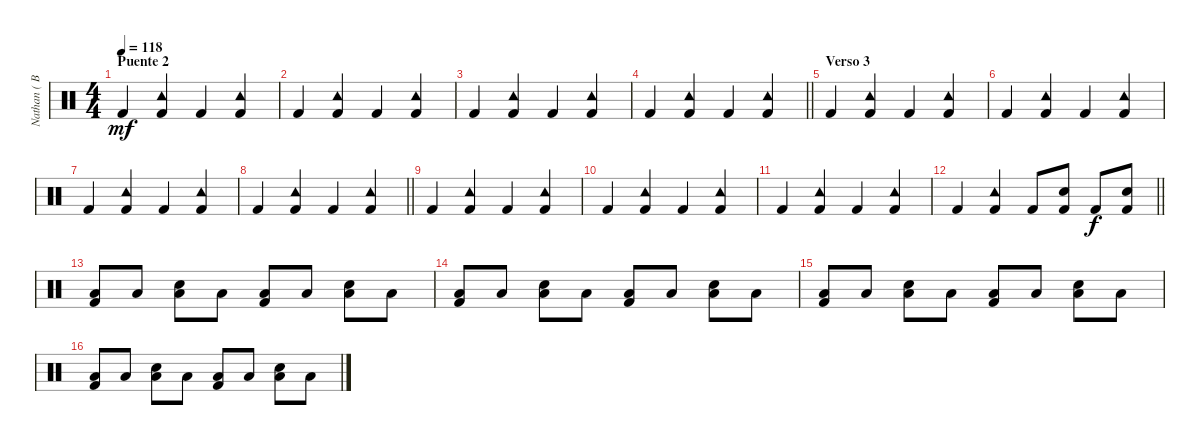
\track ("Nathan ( Bateria )" "Nathan ( B") {instrument percussion}
\staff {score}
\articulation defaults
\ts (4 4)
\section ("" "Puente 2")
\tempo 118
\clef neutral
\ks c "Kick (hit) 2".4{dy mf}
("Tambourine (hit)" "Kick (hit) 2").4 "Kick (hit) 2".4 ("Tambourine (hit)" "Kick (hit) 2").4 |
"Kick (hit) 2".4 ("Tambourine (hit)" "Kick (hit) 2").4 "Kick (hit) 2".4 ("Tambourine (hit)" "Kick (hit) 2").4 |
"Kick (hit) 2".4 ("Tambourine (hit)" "Kick (hit) 2").4 "Kick (hit) 2".4 ("Tambourine (hit)" "Kick (hit) 2").4 |
\barLineRight lightlight "Kick (hit) 2".4
("Tambourine (hit)" "Kick (hit) 2").4 "Kick (hit) 2".4 ("Tambourine (hit)" "Kick (hit) 2").4 |
\section ("" "Verso 3")
"Kick (hit) 2".4 ("Tambourine (hit)" "Kick (hit) 2").4 "Kick (hit) 2".4 ("Tambourine (hit)" "Kick (hit) 2").4 |
"Kick (hit) 2".4 ("Tambourine (hit)" "Kick (hit) 2").4 "Kick (hit) 2".4 ("Tambourine (hit)" "Kick (hit) 2").4 |
"Kick (hit) 2".4 ("Tambourine (hit)" "Kick (hit) 2").4 "Kick (hit) 2".4 ("Tambourine (hit)" "Kick (hit) 2").4 |
\barLineRight lightlight "Kick (hit) 2".4
("Tambourine (hit)" "Kick (hit) 2").4 "Kick (hit) 2".4 ("Tambourine (hit)" "Kick (hit) 2").4 |
"Kick (hit) 2".4 ("Tambourine (hit)" "Kick (hit) 2").4 "Kick (hit) 2".4 ("Tambourine (hit)" "Kick (hit) 2").4 |
"Kick (hit) 2".4 ("Tambourine (hit)" "Kick (hit) 2").4 "Kick (hit) 2".4 ("Tambourine (hit)" "Kick (hit) 2").4 |
"Kick (hit) 2".4 ("Tambourine (hit)" "Kick (hit) 2").4 "Kick (hit) 2".4 ("Tambourine (hit)" "Kick (hit) 2").4 |
\barLineRight lightlight "Kick (hit) 2".4
("Tambourine (hit)" "Kick (hit) 2").4 "Kick (hit) 2".8 ("Electric Snare (hit)" "Kick (hit) 2").8 "Kick (hit) 2".8{dy f} ("Electric Snare (hit)" "Kick (hit) 2").8 |
("Low Floor Tom (hit)" "Kick (hit) 2").8 "Low Floor Tom (hit)".8 ("Low Floor Tom (hit)" "Electric Snare (hit)").8 "Low Floor Tom (hit)".8 ("Low Floor Tom (hit)" "Kick (hit) 2").8 "Low Floor Tom (hit)".8 ("Low Floor Tom (hit)" "Electric Snare (hit)").8 "Low Floor Tom (hit)".8 |
("Low Floor Tom (hit)" "Kick (hit) 2").8 "Low Floor Tom (hit)".8 ("Low Floor Tom (hit)" "Electric Snare (hit)").8 "Low Floor Tom (hit)".8 ("Low Floor Tom (hit)" "Kick (hit) 2").8 "Low Floor Tom (hit)".8 ("Low Floor Tom (hit)" "Electric Snare (hit)").8 "Low Floor Tom (hit)".8 |
("Low Floor Tom (hit)" "Kick (hit) 2").8 "Low Floor Tom (hit)".8 ("Low Floor Tom (hit)" "Electric Snare (hit)").8 "Low Floor Tom (hit)".8 ("Low Floor Tom (hit)" "Kick (hit) 2").8 "Low Floor Tom (hit)".8 ("Low Floor Tom (hit)" "Electric Snare (hit)").8 "Low Floor Tom (hit)".8 |
("Low Floor Tom (hit)" "Kick (hit) 2").8 "Low Floor Tom (hit)".8 ("Low Floor Tom (hit)" "Electric Snare (hit)").8 "Low Floor Tom (hit)".8 ("Low Floor Tom (hit)" "Kick (hit) 2").8 "Low Floor Tom (hit)".8 ("Low Floor Tom (hit)" "Electric Snare (hit)").8 "Low Floor Tom (hit)".8
